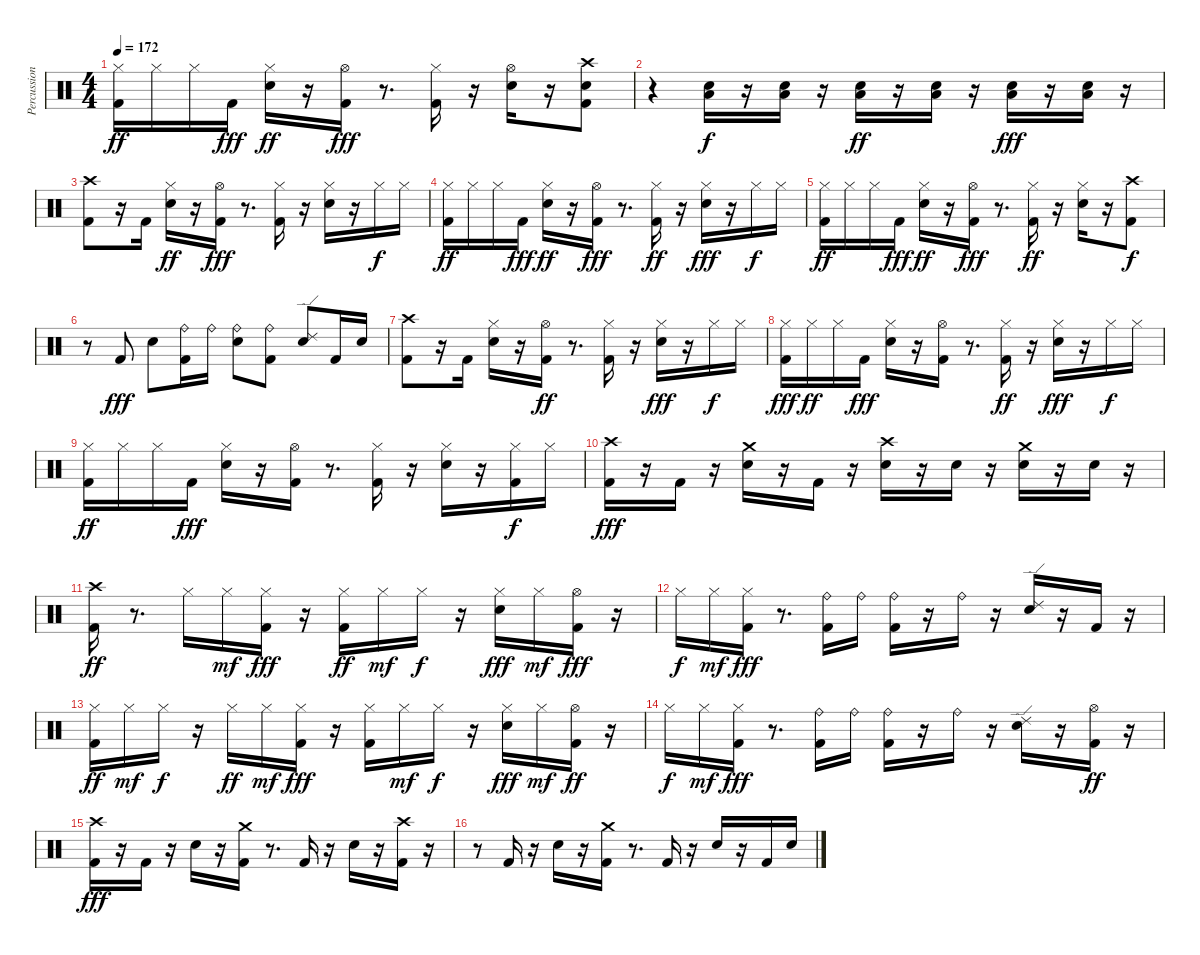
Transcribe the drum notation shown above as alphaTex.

\track ("Percussion" "Percussion") {instrument percussion}
\staff {score}
\articulation defaults
\ts (4 4)
\tempo 172
\clef neutral
\ks c
("Kick (hit) 2" "Hi-Hat (closed)").16{dy ff} "Hi-Hat (closed)".16 "Hi-Hat (closed)".16 "Kick (hit) 2".16{dy fff} ("Snare (hit) 2" "Hi-Hat (closed)").16{dy ff} r.16 ("Hi-Hat (open)" "Kick (hit) 2").16{dy fff} r.8{d} ("Hi-Hat (closed)" "Kick (hit) 2").16 r.16 ("Hi-Hat (open)" "Snare (hit) 2").16 r.16 ("Crash high (hit)" "Kick (hit) 2" "Snare (hit) 2").8 |
r.4 ("Snare (hit) 2" "Low Floor Tom (hit)").16{dy f} r.16 ("Low Floor Tom (hit)" "Snare (hit) 2").16 r.16 ("Low Floor Tom (hit)" "Snare (hit) 2").16{dy ff} r.16 ("Low Floor Tom (hit)" "Snare (hit) 2").16 r.16 ("Snare (hit) 2" "Low Floor Tom (hit)").16{dy fff} r.16 ("Low Floor Tom (hit)" "Snare (hit) 2").16 r.16 |
("Kick (hit) 2" "Crash high (hit)").8 r.16 "Kick (hit) 2".16 ("Snare (hit) 2" "Hi-Hat (closed)").16{dy ff} r.16 ("Hi-Hat (open)" "Kick (hit) 2").16{dy fff} r.8{d} ("Hi-Hat (closed)" "Kick (hit) 2").16 r.16 ("Hi-Hat (closed)" "Snare (hit) 2").16 r.16 "Hi-Hat (closed)".16{dy f} "Hi-Hat (closed)".16 |
("Kick (hit) 2" "Hi-Hat (closed)").16{dy ff} "Hi-Hat (closed)".16 "Hi-Hat (closed)".16 "Kick (hit) 2".16{dy fff} ("Snare (hit) 2" "Hi-Hat (closed)").16{dy ff} r.16 ("Hi-Hat (open)" "Kick (hit) 2").16{dy fff} r.8{d} ("Kick (hit) 2" "Hi-Hat (closed)").16{dy ff} r.16 ("Hi-Hat (closed)" "Snare (hit) 2").16{dy fff} r.16 "Hi-Hat (closed)".16{dy f} "Hi-Hat (closed)".16 |
("Kick (hit) 2" "Hi-Hat (closed)").16{dy ff} "Hi-Hat (closed)".16 "Hi-Hat (closed)".16 "Kick (hit) 2".16{dy fff} ("Snare (hit) 2" "Hi-Hat (closed)").16{dy ff} r.16 ("Hi-Hat (open)" "Kick (hit) 2").16{dy fff} r.8{d} ("Kick (hit) 2" "Hi-Hat (closed)").16{dy ff} r.16 ("Snare (hit) 2" "Hi-Hat (closed)").16 r.16 ("Crash high (hit)" "Kick (hit) 2").8{dy f} |
r.8 "Kick (hit) 2".8{dy fff} "Snare (hit) 2".8 ("Ride (bell)" "Kick (hit) 2").16 "Ride (bell)".16 ("Ride (bell)" "Snare (hit) 2").8 ("Ride (bell)" "Kick (hit) 2").8 ("Ride (edge) 2" "Snare (hit) 2").8 "Kick (hit) 2".16 "Snare (hit) 2".16 |
("Kick (hit) 2" "Crash high (hit)").8 r.16 "Kick (hit) 2".16 ("Hi-Hat (closed)" "Snare (hit) 2").16 r.16 ("Kick (hit) 2" "Hi-Hat (open)").16{dy ff} r.8{d} ("Kick (hit) 2" "Hi-Hat (closed)").16 r.16 ("Hi-Hat (closed)" "Snare (hit) 2").16{dy fff} r.16 "Hi-Hat (closed)".16{dy f} "Hi-Hat (closed)".16 |
("Hi-Hat (closed)" "Kick (hit) 2").16{dy fff} "Hi-Hat (closed)".16{dy ff} "Hi-Hat (closed)".16 "Kick (hit) 2".16{dy fff} ("Hi-Hat (closed)" "Snare (hit) 2").16 r.16 ("Hi-Hat (open)" "Kick (hit) 2").16 r.8{d} ("Kick (hit) 2" "Hi-Hat (closed)").16{dy ff} r.16 ("Hi-Hat (closed)" "Snare (hit) 2").16{dy fff} r.16 "Hi-Hat (closed)".16{dy f} "Hi-Hat (closed)".16 |
("Kick (hit) 2" "Hi-Hat (closed)").16{dy ff} "Hi-Hat (closed)".16 "Hi-Hat (closed)".16 "Kick (hit) 2".16{dy fff} ("Hi-Hat (closed)" "Snare (hit) 2").16 r.16 ("Hi-Hat (open)" "Kick (hit) 2").16 r.8{d} ("Hi-Hat (closed)" "Kick (hit) 2").16 r.16 ("Hi-Hat (closed)" "Snare (hit) 2").16 r.16 ("Hi-Hat (closed)" "Kick (hit) 2").16{dy f} "Hi-Hat (closed)".16 |
("Kick (hit) 2" "Crash high (hit)").16{dy fff} r.16 "Kick (hit) 2".16 r.16 ("Snare (hit) 2" "Crash medium (hit)").16 r.16 "Kick (hit) 2".16 r.16 ("Crash high (hit)" "Snare (hit) 2").16 r.16 "Snare (hit) 2".16 r.16 ("Snare (hit) 2" "Crash medium (hit)").16 r.16 "Snare (hit) 2".16 r.16 |
("Kick (hit) 2" "Crash high (hit)").16{dy ff} r.8{d} "Hi-Hat (closed)".16 "Hi-Hat (closed)".16{dy mf} ("Kick (hit) 2" "Hi-Hat (closed)").16{dy fff} r.16 ("Kick (hit) 2" "Hi-Hat (closed)").16{dy ff} "Hi-Hat (closed)".16{dy mf} "Hi-Hat (closed)".16{dy f} r.16 ("Snare (hit) 2" "Hi-Hat (closed)").16{dy fff} "Hi-Hat (closed)".16{dy mf} ("Hi-Hat (open)" "Kick (hit) 2").16{dy fff} r.16 |
"Hi-Hat (closed)".16{dy f} "Hi-Hat (closed)".16{dy mf} ("Kick (hit) 2" "Hi-Hat (closed)").16{dy fff} r.8{d} ("Ride (bell)" "Kick (hit) 2").16 "Ride (bell)".16 ("Ride (bell)" "Kick (hit) 2").16 r.16 "Ride (bell)".16 r.16 ("Ride (edge) 2" "Snare (hit) 2").16 r.16 "Kick (hit) 2".16 r.16 |
("Kick (hit) 2" "Hi-Hat (closed)").16{dy ff} "Hi-Hat (closed)".16{dy mf} "Hi-Hat (closed)".16{dy f} r.16 "Hi-Hat (closed)".16{dy ff} "Hi-Hat (closed)".16{dy mf} ("Kick (hit) 2" "Hi-Hat (closed)").16{dy fff} r.16 ("Hi-Hat (closed)" "Kick (hit) 2").16 "Hi-Hat (closed)".16{dy mf} "Hi-Hat (closed)".16{dy f} r.16 ("Snare (hit) 2" "Hi-Hat (closed)").16{dy fff} "Hi-Hat (closed)".16{dy mf} ("Kick (hit) 2" "Hi-Hat (open)").16{dy ff} r.16 |
"Hi-Hat (closed)".16{dy f} "Hi-Hat (closed)".16{dy mf} ("Hi-Hat (closed)" "Kick (hit) 2").16{dy fff} r.8{d} ("Ride (bell)" "Kick (hit) 2").16 "Ride (bell)".16 ("Ride (bell)" "Kick (hit) 2").16 r.16 "Ride (bell)".16 r.16 ("Ride (edge) 2" "Snare (hit) 2").16 r.16 ("Kick (hit) 2" "Hi-Hat (open)").16{dy ff} r.16 |
("Crash high (hit)" "Kick (hit) 2").16{dy fff} r.16 "Kick (hit) 2".16 r.16 "Snare (hit) 2".16 r.16 ("Crash medium (hit)" "Kick (hit) 2").16 r.8{d} "Kick (hit) 2".16 r.16 "Snare (hit) 2".16 r.16 ("Crash high (hit)" "Kick (hit) 2").16 r.16 |
r.8 "Kick (hit) 2".16 r.16 "Snare (hit) 2".16 r.16 ("Crash medium (hit)" "Kick (hit) 2").16 r.8{d} "Kick (hit) 2".16 r.16 "Snare (hit) 2".16 r.16 "Kick (hit) 2".16 "Snare (hit) 2".16
